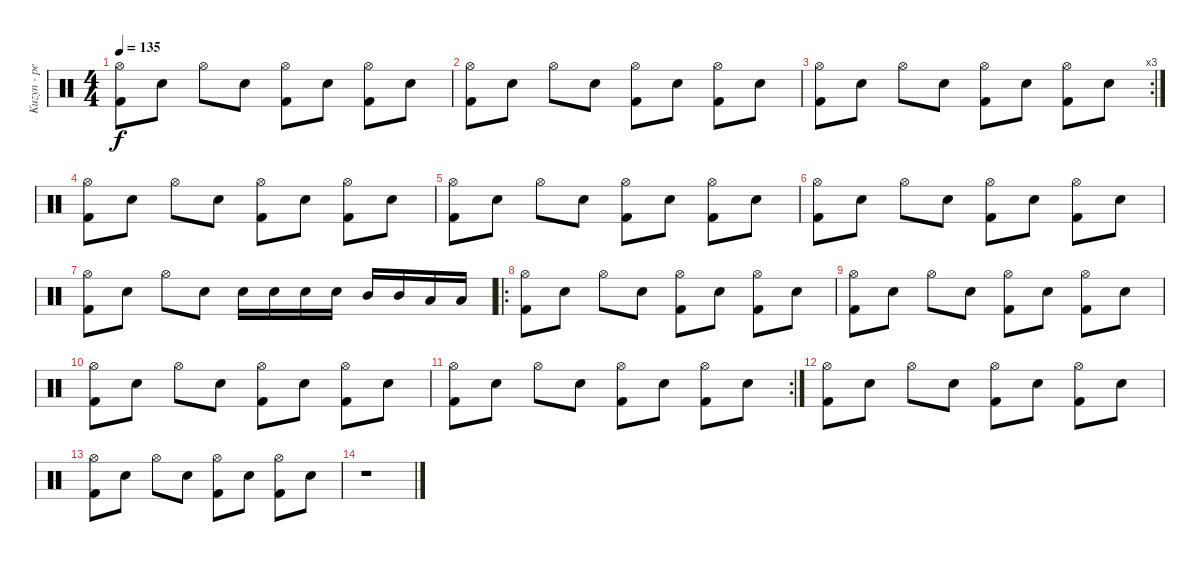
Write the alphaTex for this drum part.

\track ("Kuzyn - perkusja" "Kuzyn - pe") {instrument percussion}
\staff {score}
\articulation defaults
\ts (4 4)
\tempo 135
\clef neutral
\ks c
("Hi-Hat (open)" "Kick (hit) 2").8{dy f} "Electric Snare (hit)".8 "Hi-Hat (open)".8 "Electric Snare (hit)".8 ("Hi-Hat (open)" "Kick (hit) 2").8 "Electric Snare (hit)".8 ("Hi-Hat (open)" "Kick (hit) 2").8 "Electric Snare (hit)".8 |
("Hi-Hat (open)" "Kick (hit) 2").8 "Electric Snare (hit)".8 "Hi-Hat (open)".8 "Electric Snare (hit)".8 ("Hi-Hat (open)" "Kick (hit) 2").8 "Electric Snare (hit)".8 ("Hi-Hat (open)" "Kick (hit) 2").8 "Electric Snare (hit)".8 |
\rc 3
("Hi-Hat (open)" "Kick (hit) 2").8 "Electric Snare (hit)".8 "Hi-Hat (open)".8 "Electric Snare (hit)".8 ("Hi-Hat (open)" "Kick (hit) 2").8 "Electric Snare (hit)".8 ("Hi-Hat (open)" "Kick (hit) 2").8 "Electric Snare (hit)".8 |
("Hi-Hat (open)" "Kick (hit) 2").8 "Electric Snare (hit)".8 "Hi-Hat (open)".8 "Electric Snare (hit)".8 ("Hi-Hat (open)" "Kick (hit) 2").8 "Electric Snare (hit)".8 ("Hi-Hat (open)" "Kick (hit) 2").8 "Electric Snare (hit)".8 |
("Hi-Hat (open)" "Kick (hit) 2").8 "Electric Snare (hit)".8 "Hi-Hat (open)".8 "Electric Snare (hit)".8 ("Hi-Hat (open)" "Kick (hit) 2").8 "Electric Snare (hit)".8 ("Hi-Hat (open)" "Kick (hit) 2").8 "Electric Snare (hit)".8 |
("Hi-Hat (open)" "Kick (hit) 2").8 "Electric Snare (hit)".8 "Hi-Hat (open)".8 "Electric Snare (hit)".8 ("Hi-Hat (open)" "Kick (hit) 2").8 "Electric Snare (hit)".8 ("Hi-Hat (open)" "Kick (hit) 2").8 "Electric Snare (hit)".8 |
("Hi-Hat (open)" "Kick (hit) 2").8 "Electric Snare (hit)".8 "Hi-Hat (open)".8 "Electric Snare (hit)".8 "Electric Snare (hit)".16 "Electric Snare (hit)".16 "Electric Snare (hit)".16 "Electric Snare (hit)".16 "Mid Tom (hit)".16 "Mid Tom (hit)".16 "Low Tom (hit)".16 "Low Tom (hit)".16 |
\ro
("Hi-Hat (open)" "Kick (hit) 2").8 "Electric Snare (hit)".8 "Hi-Hat (open)".8 "Electric Snare (hit)".8 ("Hi-Hat (open)" "Kick (hit) 2").8 "Electric Snare (hit)".8 ("Hi-Hat (open)" "Kick (hit) 2").8 "Electric Snare (hit)".8 |
("Hi-Hat (open)" "Kick (hit) 2").8 "Electric Snare (hit)".8 "Hi-Hat (open)".8 "Electric Snare (hit)".8 ("Hi-Hat (open)" "Kick (hit) 2").8 "Electric Snare (hit)".8 ("Hi-Hat (open)" "Kick (hit) 2").8 "Electric Snare (hit)".8 |
("Hi-Hat (open)" "Kick (hit) 2").8 "Electric Snare (hit)".8 "Hi-Hat (open)".8 "Electric Snare (hit)".8 ("Hi-Hat (open)" "Kick (hit) 2").8 "Electric Snare (hit)".8 ("Hi-Hat (open)" "Kick (hit) 2").8 "Electric Snare (hit)".8 |
\rc 2
("Hi-Hat (open)" "Kick (hit) 2").8 "Electric Snare (hit)".8 "Hi-Hat (open)".8 "Electric Snare (hit)".8 ("Hi-Hat (open)" "Kick (hit) 2").8 "Electric Snare (hit)".8 ("Hi-Hat (open)" "Kick (hit) 2").8 "Electric Snare (hit)".8 |
("Hi-Hat (open)" "Kick (hit) 2").8 "Electric Snare (hit)".8 "Hi-Hat (open)".8 "Electric Snare (hit)".8 ("Hi-Hat (open)" "Kick (hit) 2").8 "Electric Snare (hit)".8 ("Hi-Hat (open)" "Kick (hit) 2").8 "Electric Snare (hit)".8 |
("Hi-Hat (open)" "Kick (hit) 2").8 "Electric Snare (hit)".8 "Hi-Hat (open)".8 "Electric Snare (hit)".8 ("Hi-Hat (open)" "Kick (hit) 2").8 "Electric Snare (hit)".8 ("Hi-Hat (open)" "Kick (hit) 2").8 "Electric Snare (hit)".8 |
r.1
